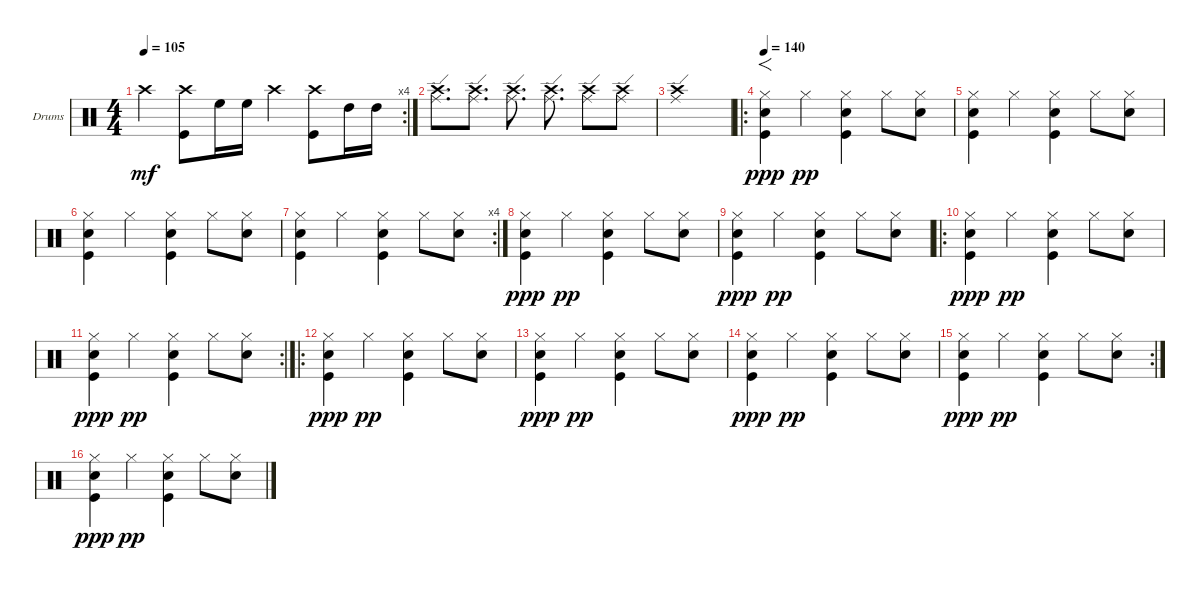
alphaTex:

\defaultSystemsLayout 4
\bracketExtendMode groupsimilarinstruments
\firstSystemTrackNameOrientation horizontal
\otherSystemsTrackNameOrientation horizontal
\track ("Drums" "Drums") {instrument percussion}
\staff {score}
\articulation defaults
\rc 4
\ts (4 4)
\tempo 105
\clef neutral
\ks c "Crash high (hit)".4{dy mf}
("Kick (hit)" "Crash high (hit)").8 "High Floor Tom (hit)".16 "High Floor Tom (hit)".16 "Crash high (hit)".4 ("Kick (hit)" "Crash high (hit)").8 "High Tom (hit)".16 "High Tom (hit)".16 |
("Ride (edge)" "Crash high (hit)").8{d} ("Ride (edge)" "Crash high (hit)").8{d} ("Ride (edge)" "Crash high (hit)").8{d} ("Ride (edge)" "Crash high (hit)").8{d} ("Ride (edge)" "Crash high (hit)").8 ("Ride (edge)" "Crash high (hit)").8 |
("Ride (edge)" "Crash high (hit)").1 |
\ro
\tempo 140
("Kick (hit)" "Snare (hit) 2" "Hi-Hat (closed)").4{f dy ppp} "Hi-Hat (closed)".4{dy pp} ("Snare (hit) 2" "Hi-Hat (closed)" "Kick (hit)").4 "Hi-Hat (closed)".8 ("Hi-Hat (closed)" "Snare (hit) 2").8 |
("Kick (hit)" "Snare (hit) 2" "Hi-Hat (closed)").4 "Hi-Hat (closed)".4 ("Snare (hit) 2" "Hi-Hat (closed)" "Kick (hit)").4 "Hi-Hat (closed)".8 ("Hi-Hat (closed)" "Snare (hit) 2").8 |
("Kick (hit)" "Snare (hit) 2" "Hi-Hat (closed)").4 "Hi-Hat (closed)".4 ("Snare (hit) 2" "Hi-Hat (closed)" "Kick (hit)").4 "Hi-Hat (closed)".8 ("Hi-Hat (closed)" "Snare (hit) 2").8 |
\rc 4
("Kick (hit)" "Snare (hit) 2" "Hi-Hat (closed)").4 "Hi-Hat (closed)".4 ("Snare (hit) 2" "Hi-Hat (closed)" "Kick (hit)").4 "Hi-Hat (closed)".8 ("Hi-Hat (closed)" "Snare (hit) 2").8 |
("Kick (hit)" "Snare (hit) 2" "Hi-Hat (closed)").4{dy ppp} "Hi-Hat (closed)".4{dy pp} ("Snare (hit) 2" "Hi-Hat (closed)" "Kick (hit)").4 "Hi-Hat (closed)".8 ("Hi-Hat (closed)" "Snare (hit) 2").8 |
("Kick (hit)" "Snare (hit) 2" "Hi-Hat (closed)").4{dy ppp} "Hi-Hat (closed)".4{dy pp} ("Snare (hit) 2" "Hi-Hat (closed)" "Kick (hit)").4 "Hi-Hat (closed)".8 ("Hi-Hat (closed)" "Snare (hit) 2").8 |
\ro
("Kick (hit)" "Snare (hit) 2" "Hi-Hat (closed)").4{dy ppp} "Hi-Hat (closed)".4{dy pp} ("Snare (hit) 2" "Hi-Hat (closed)" "Kick (hit)").4 "Hi-Hat (closed)".8 ("Hi-Hat (closed)" "Snare (hit) 2").8 |
\rc 2
("Kick (hit)" "Snare (hit) 2" "Hi-Hat (closed)").4{dy ppp} "Hi-Hat (closed)".4{dy pp} ("Snare (hit) 2" "Hi-Hat (closed)" "Kick (hit)").4 "Hi-Hat (closed)".8 ("Hi-Hat (closed)" "Snare (hit) 2").8 |
\ro
("Kick (hit)" "Snare (hit) 2" "Hi-Hat (closed)").4{dy ppp} "Hi-Hat (closed)".4{dy pp} ("Snare (hit) 2" "Hi-Hat (closed)" "Kick (hit)").4 "Hi-Hat (closed)".8 ("Hi-Hat (closed)" "Snare (hit) 2").8 |
("Kick (hit)" "Snare (hit) 2" "Hi-Hat (closed)").4{dy ppp} "Hi-Hat (closed)".4{dy pp} ("Snare (hit) 2" "Hi-Hat (closed)" "Kick (hit)").4 "Hi-Hat (closed)".8 ("Hi-Hat (closed)" "Snare (hit) 2").8 |
("Kick (hit)" "Snare (hit) 2" "Hi-Hat (closed)").4{dy ppp} "Hi-Hat (closed)".4{dy pp} ("Snare (hit) 2" "Hi-Hat (closed)" "Kick (hit)").4 "Hi-Hat (closed)".8 ("Hi-Hat (closed)" "Snare (hit) 2").8 |
\rc 2
("Kick (hit)" "Snare (hit) 2" "Hi-Hat (closed)").4{dy ppp} "Hi-Hat (closed)".4{dy pp} ("Snare (hit) 2" "Hi-Hat (closed)" "Kick (hit)").4 "Hi-Hat (closed)".8 ("Hi-Hat (closed)" "Snare (hit) 2").8 |
("Kick (hit)" "Snare (hit) 2" "Hi-Hat (closed)").4{dy ppp} "Hi-Hat (closed)".4{dy pp} ("Snare (hit) 2" "Hi-Hat (closed)" "Kick (hit)").4 "Hi-Hat (closed)".8 ("Hi-Hat (closed)" "Snare (hit) 2").8
